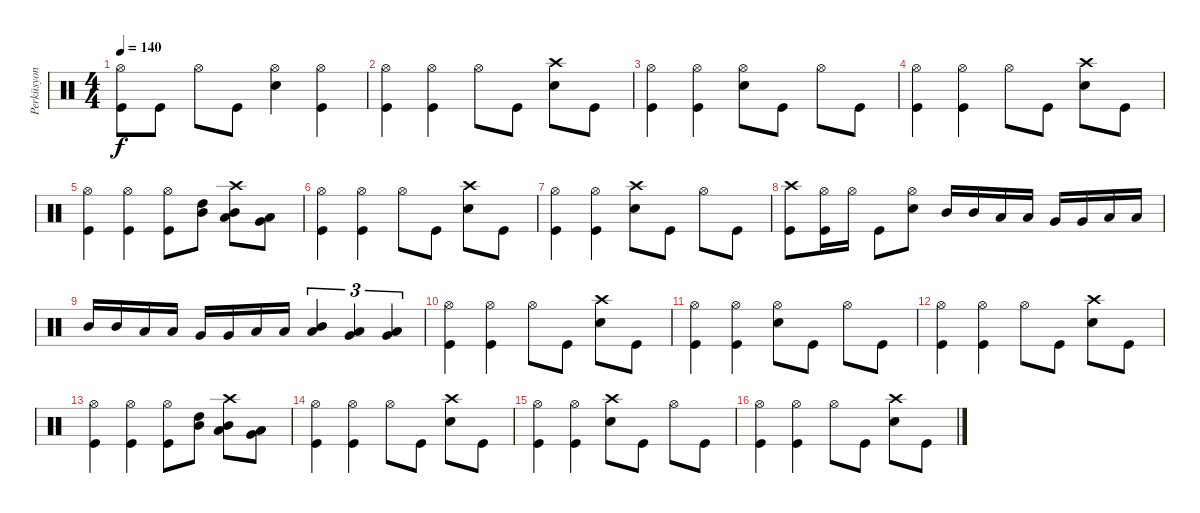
\track ("Perküsyon" "Perküsyon") {instrument percussion}
\staff {score}
\articulation defaults
\ts (4 4)
\tempo 140
\clef neutral
\ks c
("Hi-Hat (open)" "Kick (hit)").8{dy f} "Kick (hit)".8 "Hi-Hat (open)".8 "Kick (hit)".8 ("Hi-Hat (open)" "Snare (hit) 2").4 ("Hi-Hat (open)" "Kick (hit)").4 |
("Hi-Hat (open)" "Kick (hit)").4 ("Hi-Hat (open)" "Kick (hit)").4 "Hi-Hat (open)".8 "Kick (hit)".8 ("Crash high (hit)" "Snare (hit) 2").8 "Kick (hit)".8 |
("Hi-Hat (open)" "Kick (hit)").4 ("Hi-Hat (open)" "Kick (hit)").4 ("Hi-Hat (open)" "Snare (hit) 2").8 "Kick (hit)".8 "Hi-Hat (open)".8 "Kick (hit)".8 |
("Hi-Hat (open)" "Kick (hit)").4 ("Hi-Hat (open)" "Kick (hit)").4 "Hi-Hat (open)".8 "Kick (hit)".8 ("Crash high (hit)" "Snare (hit) 2").8 "Kick (hit)".8 |
("Hi-Hat (open)" "Kick (hit)").4 ("Hi-Hat (open)" "Kick (hit)").4 ("Hi-Hat (open)" "Kick (hit)").8 ("Mid Tom (hit)" "High Tom (hit)").8 ("Crash high (hit)" "Low Tom (hit)" "Mid Tom (hit)").8 ("Very Low Tom (hit)" "Low Tom (hit)").8 |
("Hi-Hat (open)" "Kick (hit)").4 ("Hi-Hat (open)" "Kick (hit)").4 "Hi-Hat (open)".8 "Kick (hit)".8 ("Crash high (hit)" "Snare (hit) 2").8 "Kick (hit)".8 |
("Hi-Hat (open)" "Kick (hit)").4 ("Hi-Hat (open)" "Kick (hit)").4 ("Crash high (hit)" "Snare (hit) 2").8 "Kick (hit)".8 "Hi-Hat (open)".8 "Kick (hit)".8 |
("Crash high (hit)" "Kick (hit)").8 ("Hi-Hat (open)" "Kick (hit)").16 "Hi-Hat (open)".16 "Kick (hit)".8 ("Hi-Hat (open)" "Snare (hit) 2").8 "Mid Tom (hit)".16 "Mid Tom (hit)".16 "Low Tom (hit)".16 "Low Tom (hit)".16 "Very Low Tom (hit)".16 "Very Low Tom (hit)".16 "Low Floor Tom (hit)".16 "Low Floor Tom (hit)".16 |
"Mid Tom (hit)".16 "Mid Tom (hit)".16 "Low Tom (hit)".16 "Low Tom (hit)".16 "Very Low Tom (hit)".16 "Very Low Tom (hit)".16 "Low Floor Tom (hit)".16 "Low Floor Tom (hit)".16 ("Low Tom (hit)" "Mid Tom (hit)").4{tu (3 2)} ("Very Low Tom (hit)" "Low Tom (hit)").4{tu (3 2)} ("Low Floor Tom (hit)" "Very Low Tom (hit)").4{tu (3 2)} |
("Hi-Hat (open)" "Kick (hit)").4 ("Hi-Hat (open)" "Kick (hit)").4 "Hi-Hat (open)".8 "Kick (hit)".8 ("Crash high (hit)" "Snare (hit) 2").8 "Kick (hit)".8 |
("Hi-Hat (open)" "Kick (hit)").4 ("Hi-Hat (open)" "Kick (hit)").4 ("Hi-Hat (open)" "Snare (hit) 2").8 "Kick (hit)".8 "Hi-Hat (open)".8 "Kick (hit)".8 |
("Hi-Hat (open)" "Kick (hit)").4 ("Hi-Hat (open)" "Kick (hit)").4 "Hi-Hat (open)".8 "Kick (hit)".8 ("Crash high (hit)" "Snare (hit) 2").8 "Kick (hit)".8 |
("Hi-Hat (open)" "Kick (hit)").4 ("Hi-Hat (open)" "Kick (hit)").4 ("Hi-Hat (open)" "Kick (hit)").8 ("Mid Tom (hit)" "High Tom (hit)").8 ("Crash high (hit)" "Low Tom (hit)" "Mid Tom (hit)").8 ("Very Low Tom (hit)" "Low Tom (hit)").8 |
("Hi-Hat (open)" "Kick (hit)").4 ("Hi-Hat (open)" "Kick (hit)").4 "Hi-Hat (open)".8 "Kick (hit)".8 ("Crash high (hit)" "Snare (hit) 2").8 "Kick (hit)".8 |
("Hi-Hat (open)" "Kick (hit)").4 ("Hi-Hat (open)" "Kick (hit)").4 ("Crash high (hit)" "Snare (hit) 2").8 "Kick (hit)".8 "Hi-Hat (open)".8 "Kick (hit)".8 |
("Hi-Hat (open)" "Kick (hit)").4 ("Hi-Hat (open)" "Kick (hit)").4 "Hi-Hat (open)".8 "Kick (hit)".8 ("Crash high (hit)" "Snare (hit) 2").8 "Kick (hit)".8
